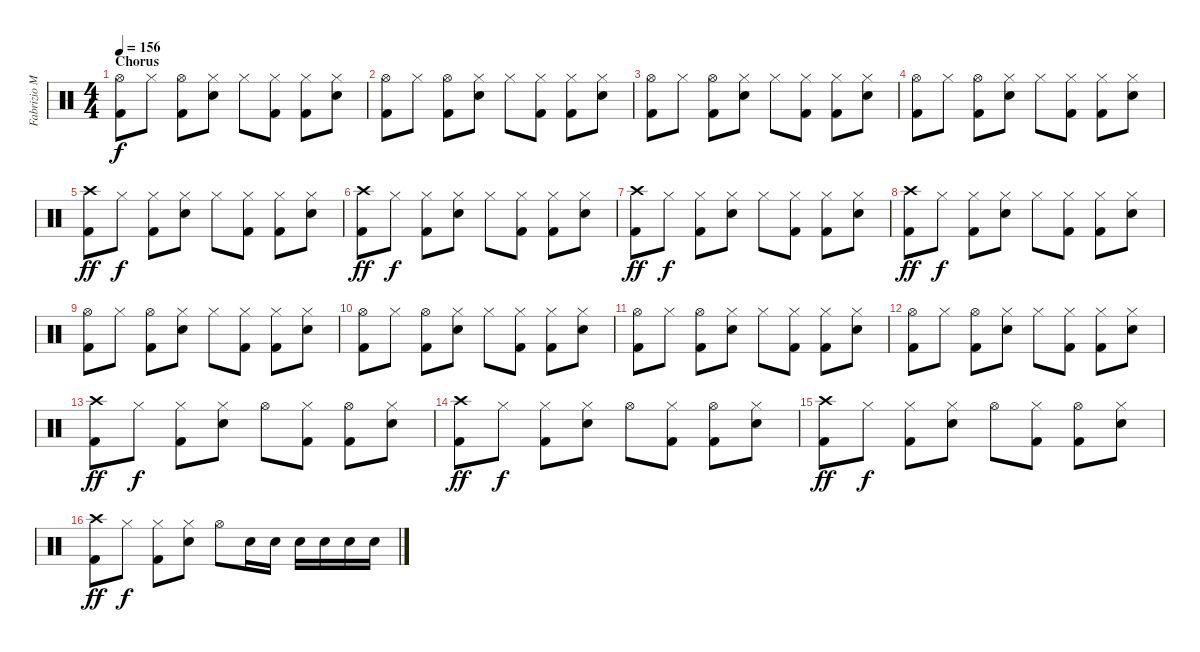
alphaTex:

\track ("Fabrizio Moretti" "Fabrizio M") {instrument percussion}
\staff {score}
\articulation defaults
\ts (4 4)
\section ("" "Chorus")
\tempo 156
\clef neutral
\ks c
("Hi-Hat (open)" "Kick (hit) 2").8{dy f} "Hi-Hat (closed)".8 ("Hi-Hat (open)" "Kick (hit) 2").8 ("Hi-Hat (closed)" "Snare (hit) 2").8 "Hi-Hat (closed)".8 ("Hi-Hat (closed)" "Kick (hit) 2").8 ("Hi-Hat (closed)" "Kick (hit) 2").8 ("Hi-Hat (closed)" "Snare (hit) 2").8 |
("Hi-Hat (open)" "Kick (hit) 2").8 "Hi-Hat (closed)".8 ("Hi-Hat (open)" "Kick (hit) 2").8 ("Hi-Hat (closed)" "Snare (hit) 2").8 "Hi-Hat (closed)".8 ("Hi-Hat (closed)" "Kick (hit) 2").8 ("Hi-Hat (closed)" "Kick (hit) 2").8 ("Hi-Hat (closed)" "Snare (hit) 2").8 |
("Hi-Hat (open)" "Kick (hit) 2").8 "Hi-Hat (closed)".8 ("Hi-Hat (open)" "Kick (hit) 2").8 ("Hi-Hat (closed)" "Snare (hit) 2").8 "Hi-Hat (closed)".8 ("Hi-Hat (closed)" "Kick (hit) 2").8 ("Hi-Hat (closed)" "Kick (hit) 2").8 ("Hi-Hat (closed)" "Snare (hit) 2").8 |
("Hi-Hat (open)" "Kick (hit) 2").8 "Hi-Hat (closed)".8 ("Hi-Hat (open)" "Kick (hit) 2").8 ("Hi-Hat (closed)" "Snare (hit) 2").8 "Hi-Hat (closed)".8 ("Hi-Hat (closed)" "Kick (hit) 2").8 ("Hi-Hat (closed)" "Kick (hit) 2").8 ("Hi-Hat (closed)" "Snare (hit) 2").8 |
("Crash high (hit)" "Kick (hit) 2").8{dy ff} "Hi-Hat (closed)".8{dy f} ("Hi-Hat (closed)" "Kick (hit) 2").8 ("Hi-Hat (closed)" "Snare (hit) 2").8 "Hi-Hat (closed)".8 ("Hi-Hat (closed)" "Kick (hit) 2").8 ("Hi-Hat (closed)" "Kick (hit) 2").8 ("Hi-Hat (closed)" "Snare (hit) 2").8 |
("Crash high (hit)" "Kick (hit) 2").8{dy ff} "Hi-Hat (closed)".8{dy f} ("Hi-Hat (closed)" "Kick (hit) 2").8 ("Hi-Hat (closed)" "Snare (hit) 2").8 "Hi-Hat (closed)".8 ("Hi-Hat (closed)" "Kick (hit) 2").8 ("Hi-Hat (closed)" "Kick (hit) 2").8 ("Hi-Hat (closed)" "Snare (hit) 2").8 |
("Crash high (hit)" "Kick (hit) 2").8{dy ff} "Hi-Hat (closed)".8{dy f} ("Hi-Hat (closed)" "Kick (hit) 2").8 ("Hi-Hat (closed)" "Snare (hit) 2").8 "Hi-Hat (closed)".8 ("Hi-Hat (closed)" "Kick (hit) 2").8 ("Hi-Hat (closed)" "Kick (hit) 2").8 ("Hi-Hat (closed)" "Snare (hit) 2").8 |
("Crash high (hit)" "Kick (hit) 2").8{dy ff} "Hi-Hat (closed)".8{dy f} ("Hi-Hat (closed)" "Kick (hit) 2").8 ("Hi-Hat (closed)" "Snare (hit) 2").8 "Hi-Hat (closed)".8 ("Hi-Hat (closed)" "Kick (hit) 2").8 ("Hi-Hat (closed)" "Kick (hit) 2").8 ("Hi-Hat (closed)" "Snare (hit) 2").8 |
("Hi-Hat (open)" "Kick (hit) 2").8 "Hi-Hat (closed)".8 ("Hi-Hat (open)" "Kick (hit) 2").8 ("Hi-Hat (closed)" "Snare (hit) 2").8 "Hi-Hat (closed)".8 ("Hi-Hat (closed)" "Kick (hit) 2").8 ("Hi-Hat (closed)" "Kick (hit) 2").8 ("Hi-Hat (closed)" "Snare (hit) 2").8 |
("Hi-Hat (open)" "Kick (hit) 2").8 "Hi-Hat (closed)".8 ("Hi-Hat (open)" "Kick (hit) 2").8 ("Hi-Hat (closed)" "Snare (hit) 2").8 "Hi-Hat (closed)".8 ("Hi-Hat (closed)" "Kick (hit) 2").8 ("Hi-Hat (closed)" "Kick (hit) 2").8 ("Hi-Hat (closed)" "Snare (hit) 2").8 |
("Hi-Hat (open)" "Kick (hit) 2").8 "Hi-Hat (closed)".8 ("Hi-Hat (open)" "Kick (hit) 2").8 ("Hi-Hat (closed)" "Snare (hit) 2").8 "Hi-Hat (closed)".8 ("Hi-Hat (closed)" "Kick (hit) 2").8 ("Hi-Hat (closed)" "Kick (hit) 2").8 ("Hi-Hat (closed)" "Snare (hit) 2").8 |
("Hi-Hat (open)" "Kick (hit) 2").8 "Hi-Hat (closed)".8 ("Hi-Hat (open)" "Kick (hit) 2").8 ("Hi-Hat (closed)" "Snare (hit) 2").8 "Hi-Hat (closed)".8 ("Hi-Hat (closed)" "Kick (hit) 2").8 ("Hi-Hat (closed)" "Kick (hit) 2").8 ("Hi-Hat (closed)" "Snare (hit) 2").8 |
("Crash high (hit)" "Kick (hit) 2").8{dy ff} "Hi-Hat (closed)".8{dy f} ("Hi-Hat (closed)" "Kick (hit) 2").8 ("Hi-Hat (closed)" "Snare (hit) 2").8 "Hi-Hat (open)".8 ("Hi-Hat (closed)" "Kick (hit) 2").8 ("Hi-Hat (open)" "Kick (hit) 2").8 ("Hi-Hat (closed)" "Snare (hit) 2").8 |
("Crash high (hit)" "Kick (hit) 2").8{dy ff} "Hi-Hat (closed)".8{dy f} ("Hi-Hat (closed)" "Kick (hit) 2").8 ("Hi-Hat (closed)" "Snare (hit) 2").8 "Hi-Hat (open)".8 ("Hi-Hat (closed)" "Kick (hit) 2").8 ("Hi-Hat (open)" "Kick (hit) 2").8 ("Hi-Hat (closed)" "Snare (hit) 2").8 |
("Crash high (hit)" "Kick (hit) 2").8{dy ff} "Hi-Hat (closed)".8{dy f} ("Hi-Hat (closed)" "Kick (hit) 2").8 ("Hi-Hat (closed)" "Snare (hit) 2").8 "Hi-Hat (open)".8 ("Hi-Hat (closed)" "Kick (hit) 2").8 ("Hi-Hat (open)" "Kick (hit) 2").8 ("Hi-Hat (closed)" "Snare (hit) 2").8 |
("Crash high (hit)" "Kick (hit) 2").8{dy ff} "Hi-Hat (closed)".8{dy f} ("Hi-Hat (closed)" "Kick (hit) 2").8 ("Hi-Hat (closed)" "Snare (hit) 2").8 "Hi-Hat (open)".8 "Snare (hit) 2".16 "Snare (hit) 2".16 "Snare (hit) 2".16 "Snare (hit) 2".16 "Snare (hit) 2".16 "Snare (hit) 2".16
